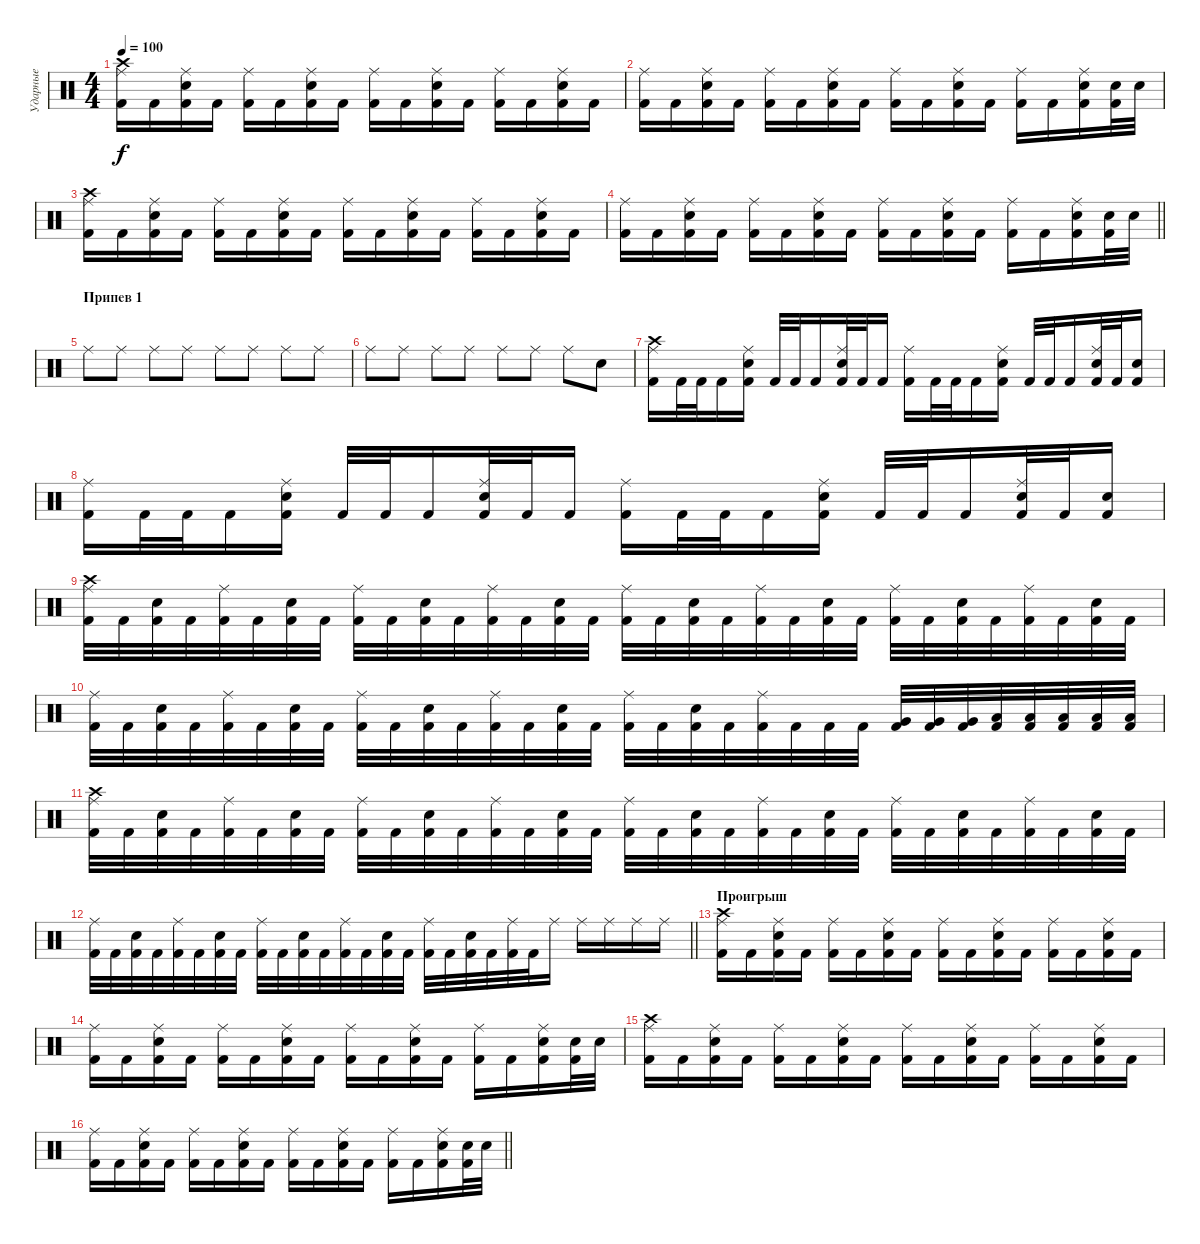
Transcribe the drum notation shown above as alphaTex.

\track ("Ударные" "Ударные") {instrument percussion}
\staff {score}
\articulation defaults
\ts (4 4)
\tempo 100
\clef neutral
\ks c
("Kick (hit) 2" "Crash high (hit)" "Ride (middle)").16{dy f} "Kick (hit) 2".16 ("Kick (hit) 2" "Ride (middle)" "Snare (hit) 2").16 "Kick (hit) 2".16 ("Kick (hit) 2" "Ride (middle)").16 "Kick (hit) 2".16 ("Kick (hit) 2" "Ride (middle)" "Snare (hit) 2").16 "Kick (hit) 2".16 ("Kick (hit) 2" "Ride (middle)").16 "Kick (hit) 2".16 ("Kick (hit) 2" "Ride (middle)" "Snare (hit) 2").16 "Kick (hit) 2".16 ("Kick (hit) 2" "Ride (middle)").16 "Kick (hit) 2".16 ("Kick (hit) 2" "Ride (middle)" "Snare (hit) 2").16 "Kick (hit) 2".16 |
("Kick (hit) 2" "Ride (middle)").16 "Kick (hit) 2".16 ("Kick (hit) 2" "Ride (middle)" "Snare (hit) 2").16 "Kick (hit) 2".16 ("Kick (hit) 2" "Ride (middle)").16 "Kick (hit) 2".16 ("Kick (hit) 2" "Ride (middle)" "Snare (hit) 2").16 "Kick (hit) 2".16 ("Kick (hit) 2" "Ride (middle)").16 "Kick (hit) 2".16 ("Kick (hit) 2" "Ride (middle)" "Snare (hit) 2").16 "Kick (hit) 2".16 ("Kick (hit) 2" "Ride (middle)").16 "Kick (hit) 2".16 ("Kick (hit) 2" "Ride (middle)" "Snare (hit) 2").16 ("Kick (hit) 2" "Snare (hit) 2").32 "Snare (hit) 2".32 |
("Kick (hit) 2" "Crash high (hit)" "Ride (middle)").16 "Kick (hit) 2".16 ("Kick (hit) 2" "Ride (middle)" "Snare (hit) 2").16 "Kick (hit) 2".16 ("Kick (hit) 2" "Ride (middle)").16 "Kick (hit) 2".16 ("Kick (hit) 2" "Ride (middle)" "Snare (hit) 2").16 "Kick (hit) 2".16 ("Kick (hit) 2" "Ride (middle)").16 "Kick (hit) 2".16 ("Kick (hit) 2" "Ride (middle)" "Snare (hit) 2").16 "Kick (hit) 2".16 ("Kick (hit) 2" "Ride (middle)").16 "Kick (hit) 2".16 ("Kick (hit) 2" "Ride (middle)" "Snare (hit) 2").16 "Kick (hit) 2".16 |
\barLineRight lightlight
("Kick (hit) 2" "Ride (middle)").16 "Kick (hit) 2".16 ("Kick (hit) 2" "Ride (middle)" "Snare (hit) 2").16 "Kick (hit) 2".16 ("Kick (hit) 2" "Ride (middle)").16 "Kick (hit) 2".16 ("Kick (hit) 2" "Ride (middle)" "Snare (hit) 2").16 "Kick (hit) 2".16 ("Kick (hit) 2" "Ride (middle)").16 "Kick (hit) 2".16 ("Kick (hit) 2" "Ride (middle)" "Snare (hit) 2").16 "Kick (hit) 2".16 ("Kick (hit) 2" "Ride (middle)").16 "Kick (hit) 2".16 ("Kick (hit) 2" "Ride (middle)" "Snare (hit) 2").16 ("Kick (hit) 2" "Snare (hit) 2").32 "Snare (hit) 2".32 |
\section ("" "Припев 1")
"Ride (middle)".8 "Ride (middle)".8 "Ride (middle)".8 "Ride (middle)".8 "Ride (middle)".8 "Ride (middle)".8 "Ride (middle)".8 "Ride (middle)".8 |
"Ride (middle)".8 "Ride (middle)".8 "Ride (middle)".8 "Ride (middle)".8 "Ride (middle)".8 "Ride (middle)".8 "Ride (middle)".8 "Snare (hit) 2".8 |
("Kick (hit) 2" "Ride (middle)" "Crash high (hit)").16 "Kick (hit) 2".32 "Kick (hit) 2".32 "Kick (hit) 2".16 ("Kick (hit) 2" "Ride (middle)" "Snare (hit) 2").16 "Kick (hit) 2".32 "Kick (hit) 2".32 "Kick (hit) 2".16 ("Kick (hit) 2" "Ride (middle)" "Snare (hit) 2").32 "Kick (hit) 2".32 "Kick (hit) 2".16 ("Kick (hit) 2" "Ride (middle)").16 "Kick (hit) 2".32 "Kick (hit) 2".32 "Kick (hit) 2".16 ("Kick (hit) 2" "Ride (middle)" "Snare (hit) 2").16 "Kick (hit) 2".32 "Kick (hit) 2".32 "Kick (hit) 2".16 ("Kick (hit) 2" "Ride (middle)" "Snare (hit) 2").32 "Kick (hit) 2".32 ("Kick (hit) 2" "Snare (hit) 2").16 |
("Kick (hit) 2" "Ride (middle)").16 "Kick (hit) 2".32 "Kick (hit) 2".32 "Kick (hit) 2".16 ("Kick (hit) 2" "Ride (middle)" "Snare (hit) 2").16 "Kick (hit) 2".32 "Kick (hit) 2".32 "Kick (hit) 2".16 ("Kick (hit) 2" "Ride (middle)" "Snare (hit) 2").32 "Kick (hit) 2".32 "Kick (hit) 2".16 ("Kick (hit) 2" "Ride (middle)").16 "Kick (hit) 2".32 "Kick (hit) 2".32 "Kick (hit) 2".16 ("Kick (hit) 2" "Ride (middle)" "Snare (hit) 2").16 "Kick (hit) 2".32 "Kick (hit) 2".32 "Kick (hit) 2".16 ("Kick (hit) 2" "Ride (middle)" "Snare (hit) 2").32 "Kick (hit) 2".32 ("Kick (hit) 2" "Snare (hit) 2").16 |
("Kick (hit) 2" "Ride (middle)" "Crash high (hit)").32 "Kick (hit) 2".32 ("Kick (hit) 2" "Snare (hit) 2").32 "Kick (hit) 2".32 ("Kick (hit) 2" "Ride (middle)").32 "Kick (hit) 2".32 ("Kick (hit) 2" "Snare (hit) 2").32 "Kick (hit) 2".32 ("Kick (hit) 2" "Ride (middle)").32 "Kick (hit) 2".32 ("Kick (hit) 2" "Snare (hit) 2").32 "Kick (hit) 2".32 ("Kick (hit) 2" "Ride (middle)").32 "Kick (hit) 2".32 ("Kick (hit) 2" "Snare (hit) 2").32 "Kick (hit) 2".32 ("Kick (hit) 2" "Ride (middle)").32 "Kick (hit) 2".32 ("Kick (hit) 2" "Snare (hit) 2").32 "Kick (hit) 2".32 ("Kick (hit) 2" "Ride (middle)").32 "Kick (hit) 2".32 ("Kick (hit) 2" "Snare (hit) 2").32 "Kick (hit) 2".32 ("Kick (hit) 2" "Ride (middle)").32 "Kick (hit) 2".32 ("Kick (hit) 2" "Snare (hit) 2").32 "Kick (hit) 2".32 ("Kick (hit) 2" "Ride (middle)").32 "Kick (hit) 2".32 ("Kick (hit) 2" "Snare (hit) 2").32 "Kick (hit) 2".32 |
("Kick (hit) 2" "Ride (middle)").32 "Kick (hit) 2".32 ("Kick (hit) 2" "Snare (hit) 2").32 "Kick (hit) 2".32 ("Kick (hit) 2" "Ride (middle)").32 "Kick (hit) 2".32 ("Kick (hit) 2" "Snare (hit) 2").32 "Kick (hit) 2".32 ("Kick (hit) 2" "Ride (middle)").32 "Kick (hit) 2".32 ("Kick (hit) 2" "Snare (hit) 2").32 "Kick (hit) 2".32 ("Kick (hit) 2" "Ride (middle)").32 "Kick (hit) 2".32 ("Kick (hit) 2" "Snare (hit) 2").32 "Kick (hit) 2".32 ("Kick (hit) 2" "Ride (middle)").32 "Kick (hit) 2".32 ("Kick (hit) 2" "Snare (hit) 2").32 "Kick (hit) 2".32 ("Kick (hit) 2" "Ride (middle)").32 "Kick (hit) 2".32 "Kick (hit) 2".32 "Kick (hit) 2".32 ("Kick (hit) 2" "Very Low Tom (hit)").32 ("Kick (hit) 2" "Very Low Tom (hit)").32 ("Kick (hit) 2" "Very Low Tom (hit)").32 ("Kick (hit) 2" "Low Tom (hit)").32 ("Kick (hit) 2" "Low Tom (hit)").32 ("Kick (hit) 2" "Low Floor Tom (hit)").32 ("Kick (hit) 2" "Low Floor Tom (hit)").32 ("Kick (hit) 2" "Low Floor Tom (hit)").32 |
("Kick (hit) 2" "Ride (middle)" "Crash high (hit)").32 "Kick (hit) 2".32 ("Kick (hit) 2" "Snare (hit) 2").32 "Kick (hit) 2".32 ("Kick (hit) 2" "Ride (middle)").32 "Kick (hit) 2".32 ("Kick (hit) 2" "Snare (hit) 2").32 "Kick (hit) 2".32 ("Kick (hit) 2" "Ride (middle)").32 "Kick (hit) 2".32 ("Kick (hit) 2" "Snare (hit) 2").32 "Kick (hit) 2".32 ("Kick (hit) 2" "Ride (middle)").32 "Kick (hit) 2".32 ("Kick (hit) 2" "Snare (hit) 2").32 "Kick (hit) 2".32 ("Kick (hit) 2" "Ride (middle)").32 "Kick (hit) 2".32 ("Kick (hit) 2" "Snare (hit) 2").32 "Kick (hit) 2".32 ("Kick (hit) 2" "Ride (middle)").32 "Kick (hit) 2".32 ("Kick (hit) 2" "Snare (hit) 2").32 "Kick (hit) 2".32 ("Kick (hit) 2" "Ride (middle)").32 "Kick (hit) 2".32 ("Kick (hit) 2" "Snare (hit) 2").32 "Kick (hit) 2".32 ("Kick (hit) 2" "Ride (middle)").32 "Kick (hit) 2".32 ("Kick (hit) 2" "Snare (hit) 2").32 "Kick (hit) 2".32 |
\barLineRight lightlight
("Kick (hit) 2" "Ride (middle)").32 "Kick (hit) 2".32 ("Kick (hit) 2" "Snare (hit) 2").32 "Kick (hit) 2".32 ("Kick (hit) 2" "Ride (middle)").32 "Kick (hit) 2".32 ("Kick (hit) 2" "Snare (hit) 2").32 "Kick (hit) 2".32 ("Kick (hit) 2" "Ride (middle)").32 "Kick (hit) 2".32 ("Kick (hit) 2" "Snare (hit) 2").32 "Kick (hit) 2".32 ("Kick (hit) 2" "Ride (middle)").32 "Kick (hit) 2".32 ("Kick (hit) 2" "Snare (hit) 2").32 "Kick (hit) 2".32 ("Kick (hit) 2" "Ride (middle)").32 "Kick (hit) 2".32 ("Kick (hit) 2" "Snare (hit) 2").32 "Kick (hit) 2".32 ("Kick (hit) 2" "Ride (middle)").32 "Kick (hit) 2".32 "Ride (middle)".16 "Ride (middle)".16 "Ride (middle)".16 "Ride (middle)".16 "Ride (middle)".16 |
\section ("" "Проигрыш")
("Kick (hit) 2" "Crash high (hit)" "Ride (middle)").16 "Kick (hit) 2".16 ("Kick (hit) 2" "Ride (middle)" "Snare (hit) 2").16 "Kick (hit) 2".16 ("Kick (hit) 2" "Ride (middle)").16 "Kick (hit) 2".16 ("Kick (hit) 2" "Ride (middle)" "Snare (hit) 2").16 "Kick (hit) 2".16 ("Kick (hit) 2" "Ride (middle)").16 "Kick (hit) 2".16 ("Kick (hit) 2" "Ride (middle)" "Snare (hit) 2").16 "Kick (hit) 2".16 ("Kick (hit) 2" "Ride (middle)").16 "Kick (hit) 2".16 ("Kick (hit) 2" "Ride (middle)" "Snare (hit) 2").16 "Kick (hit) 2".16 |
("Kick (hit) 2" "Ride (middle)").16 "Kick (hit) 2".16 ("Kick (hit) 2" "Ride (middle)" "Snare (hit) 2").16 "Kick (hit) 2".16 ("Kick (hit) 2" "Ride (middle)").16 "Kick (hit) 2".16 ("Kick (hit) 2" "Ride (middle)" "Snare (hit) 2").16 "Kick (hit) 2".16 ("Kick (hit) 2" "Ride (middle)").16 "Kick (hit) 2".16 ("Kick (hit) 2" "Ride (middle)" "Snare (hit) 2").16 "Kick (hit) 2".16 ("Kick (hit) 2" "Ride (middle)").16 "Kick (hit) 2".16 ("Kick (hit) 2" "Ride (middle)" "Snare (hit) 2").16 ("Kick (hit) 2" "Snare (hit) 2").32 "Snare (hit) 2".32 |
("Kick (hit) 2" "Crash high (hit)" "Ride (middle)").16 "Kick (hit) 2".16 ("Kick (hit) 2" "Ride (middle)" "Snare (hit) 2").16 "Kick (hit) 2".16 ("Kick (hit) 2" "Ride (middle)").16 "Kick (hit) 2".16 ("Kick (hit) 2" "Ride (middle)" "Snare (hit) 2").16 "Kick (hit) 2".16 ("Kick (hit) 2" "Ride (middle)").16 "Kick (hit) 2".16 ("Kick (hit) 2" "Ride (middle)" "Snare (hit) 2").16 "Kick (hit) 2".16 ("Kick (hit) 2" "Ride (middle)").16 "Kick (hit) 2".16 ("Kick (hit) 2" "Ride (middle)" "Snare (hit) 2").16 "Kick (hit) 2".16 |
\barLineRight lightlight
("Kick (hit) 2" "Ride (middle)").16 "Kick (hit) 2".16 ("Kick (hit) 2" "Ride (middle)" "Snare (hit) 2").16 "Kick (hit) 2".16 ("Kick (hit) 2" "Ride (middle)").16 "Kick (hit) 2".16 ("Kick (hit) 2" "Ride (middle)" "Snare (hit) 2").16 "Kick (hit) 2".16 ("Kick (hit) 2" "Ride (middle)").16 "Kick (hit) 2".16 ("Kick (hit) 2" "Ride (middle)" "Snare (hit) 2").16 "Kick (hit) 2".16 ("Kick (hit) 2" "Ride (middle)").16 "Kick (hit) 2".16 ("Kick (hit) 2" "Ride (middle)" "Snare (hit) 2").16 ("Kick (hit) 2" "Snare (hit) 2").32 "Snare (hit) 2".32
